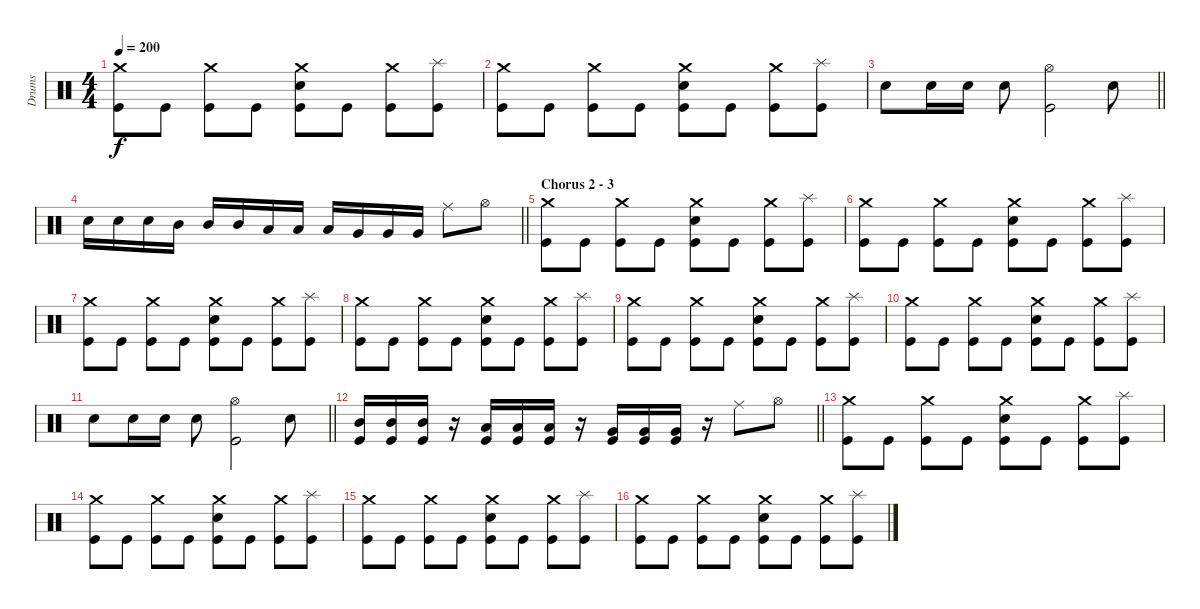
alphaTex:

\track ("Drums" "Drums") {instrument percussion}
\staff {score}
\articulation defaults
\ts (4 4)
\tempo 200
\clef neutral
\ks c
("Crash medium (hit)" "Kick (hit)").8{dy f} "Kick (hit)".8 ("Crash medium (hit)" "Kick (hit)").8 "Kick (hit)".8 ("Crash medium (hit)" "Snare (hit) 2" "Kick (hit)").8 "Kick (hit)".8 ("Crash medium (hit)" "Kick (hit)").8 ("Splash (hit)" "Kick (hit)").8 |
("Crash medium (hit)" "Kick (hit)").8 "Kick (hit)".8 ("Crash medium (hit)" "Kick (hit)").8 "Kick (hit)".8 ("Crash medium (hit)" "Snare (hit) 2" "Kick (hit)").8 "Kick (hit)".8 ("Crash medium (hit)" "Kick (hit)").8 ("Splash (hit)" "Kick (hit)").8 |
\barLineRight lightlight "Snare (hit) 2".8 "Snare (hit) 2".16 "Snare (hit) 2".16 "Snare (hit) 2".8
("Hi-Hat (open)" "Kick (hit)").2 "Snare (hit) 2".8 |
\barLineRight lightlight "Snare (hit) 2".16 "Snare (hit) 2".16 "Snare (hit) 2".16 "Mid Tom (hit)".16 "Mid Tom (hit)".16 "Mid Tom (hit)".16 "Low Tom (hit)".16 "Low Tom (hit)".16 "Low Tom (hit)".16 "Very Low Tom (hit)".16 "Very Low Tom (hit)".16 "Very Low Tom (hit)".16 "Ride (middle)".8 "Hi-Hat (open)".8
|
\section ("" "Chorus 2 - 3")
("Crash medium (hit)" "Kick (hit)").8 "Kick (hit)".8 ("Crash medium (hit)" "Kick (hit)").8 "Kick (hit)".8 ("Crash medium (hit)" "Snare (hit) 2" "Kick (hit)").8 "Kick (hit)".8 ("Crash medium (hit)" "Kick (hit)").8 ("Splash (hit)" "Kick (hit)").8 |
("Crash medium (hit)" "Kick (hit)").8 "Kick (hit)".8 ("Crash medium (hit)" "Kick (hit)").8 "Kick (hit)".8 ("Crash medium (hit)" "Snare (hit) 2" "Kick (hit)").8 "Kick (hit)".8 ("Crash medium (hit)" "Kick (hit)").8 ("Splash (hit)" "Kick (hit)").8 |
("Crash medium (hit)" "Kick (hit)").8 "Kick (hit)".8 ("Crash medium (hit)" "Kick (hit)").8 "Kick (hit)".8 ("Crash medium (hit)" "Snare (hit) 2" "Kick (hit)").8 "Kick (hit)".8 ("Crash medium (hit)" "Kick (hit)").8 ("Splash (hit)" "Kick (hit)").8 |
("Crash medium (hit)" "Kick (hit)").8 "Kick (hit)".8 ("Crash medium (hit)" "Kick (hit)").8 "Kick (hit)".8 ("Crash medium (hit)" "Snare (hit) 2" "Kick (hit)").8 "Kick (hit)".8 ("Crash medium (hit)" "Kick (hit)").8 ("Splash (hit)" "Kick (hit)").8 |
("Crash medium (hit)" "Kick (hit)").8 "Kick (hit)".8 ("Crash medium (hit)" "Kick (hit)").8 "Kick (hit)".8 ("Crash medium (hit)" "Snare (hit) 2" "Kick (hit)").8 "Kick (hit)".8 ("Crash medium (hit)" "Kick (hit)").8 ("Splash (hit)" "Kick (hit)").8 |
("Crash medium (hit)" "Kick (hit)").8 "Kick (hit)".8 ("Crash medium (hit)" "Kick (hit)").8 "Kick (hit)".8 ("Crash medium (hit)" "Snare (hit) 2" "Kick (hit)").8 "Kick (hit)".8 ("Crash medium (hit)" "Kick (hit)").8 ("Splash (hit)" "Kick (hit)").8 |
\barLineRight lightlight "Snare (hit) 2".8 "Snare (hit) 2".16 "Snare (hit) 2".16 "Snare (hit) 2".8
("Hi-Hat (open)" "Kick (hit)").2 "Snare (hit) 2".8 |
\barLineRight lightlight
("Mid Tom (hit)" "Kick (hit)").16 ("Mid Tom (hit)" "Kick (hit)").16 ("Mid Tom (hit)" "Kick (hit)").16 r.16 ("Low Tom (hit)" "Kick (hit)").16 ("Low Tom (hit)" "Kick (hit)").16 ("Low Tom (hit)" "Kick (hit)").16 r.16 ("Very Low Tom (hit)" "Kick (hit)").16 ("Very Low Tom (hit)" "Kick (hit)").16 ("Very Low Tom (hit)" "Kick (hit)").16 r.16 "Ride (middle)".8 "Hi-Hat (open)".8 |
("Crash medium (hit)" "Kick (hit)").8 "Kick (hit)".8 ("Crash medium (hit)" "Kick (hit)").8 "Kick (hit)".8 ("Crash medium (hit)" "Snare (hit) 2" "Kick (hit)").8 "Kick (hit)".8 ("Crash medium (hit)" "Kick (hit)").8 ("Splash (hit)" "Kick (hit)").8 |
("Crash medium (hit)" "Kick (hit)").8 "Kick (hit)".8 ("Crash medium (hit)" "Kick (hit)").8 "Kick (hit)".8 ("Crash medium (hit)" "Snare (hit) 2" "Kick (hit)").8 "Kick (hit)".8 ("Crash medium (hit)" "Kick (hit)").8 ("Splash (hit)" "Kick (hit)").8 |
("Crash medium (hit)" "Kick (hit)").8 "Kick (hit)".8 ("Crash medium (hit)" "Kick (hit)").8 "Kick (hit)".8 ("Crash medium (hit)" "Snare (hit) 2" "Kick (hit)").8 "Kick (hit)".8 ("Crash medium (hit)" "Kick (hit)").8 ("Splash (hit)" "Kick (hit)").8 |
("Crash medium (hit)" "Kick (hit)").8 "Kick (hit)".8 ("Crash medium (hit)" "Kick (hit)").8 "Kick (hit)".8 ("Crash medium (hit)" "Snare (hit) 2" "Kick (hit)").8 "Kick (hit)".8 ("Crash medium (hit)" "Kick (hit)").8 ("Splash (hit)" "Kick (hit)").8
